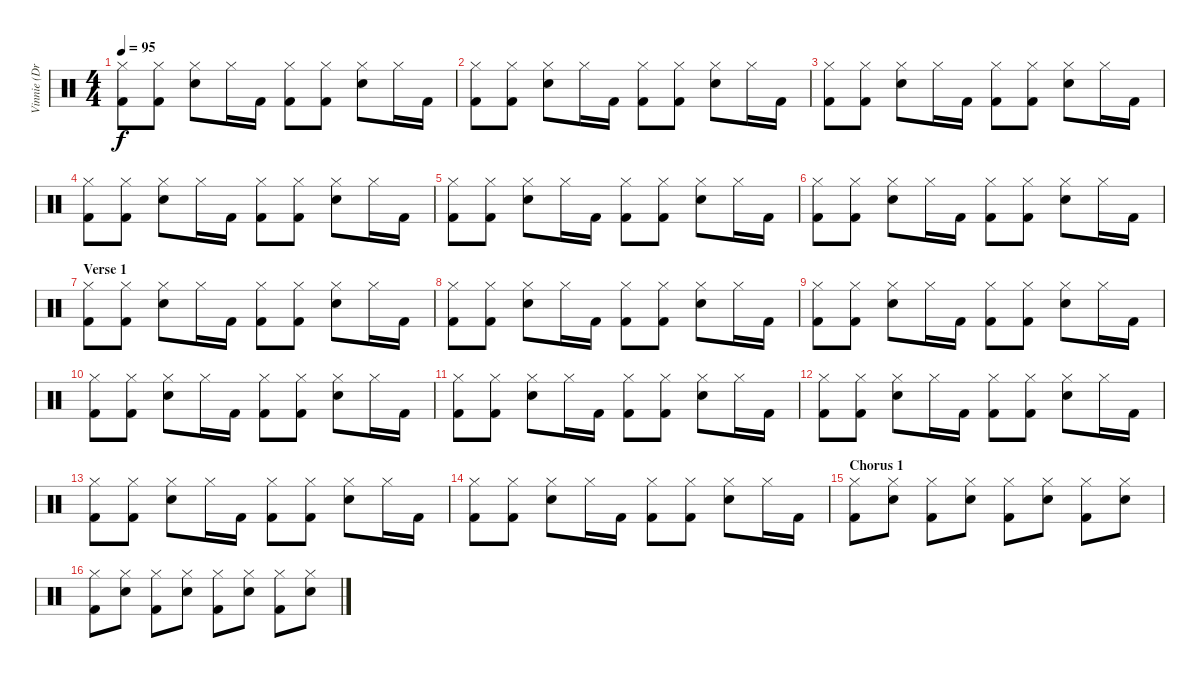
\track ("Vinnie (Drums)" "Vinnie (Dr") {instrument percussion}
\staff {score}
\articulation defaults
\ts (4 4)
\tempo 95
\clef neutral
\ks c
("Kick (hit) 2" "Hi-Hat (closed)").8{dy f} ("Kick (hit) 2" "Hi-Hat (closed)").8 ("Snare (hit) 2" "Hi-Hat (closed)").8 "Hi-Hat (closed)".16 "Kick (hit) 2".16 ("Kick (hit) 2" "Hi-Hat (closed)").8 ("Kick (hit) 2" "Hi-Hat (closed)").8 ("Snare (hit) 2" "Hi-Hat (closed)").8 "Hi-Hat (closed)".16 "Kick (hit) 2".16 |
("Kick (hit) 2" "Hi-Hat (closed)").8 ("Kick (hit) 2" "Hi-Hat (closed)").8 ("Snare (hit) 2" "Hi-Hat (closed)").8 "Hi-Hat (closed)".16 "Kick (hit) 2".16 ("Kick (hit) 2" "Hi-Hat (closed)").8 ("Kick (hit) 2" "Hi-Hat (closed)").8 ("Snare (hit) 2" "Hi-Hat (closed)").8 "Hi-Hat (closed)".16 "Kick (hit) 2".16 |
("Kick (hit) 2" "Hi-Hat (closed)").8 ("Kick (hit) 2" "Hi-Hat (closed)").8 ("Snare (hit) 2" "Hi-Hat (closed)").8 "Hi-Hat (closed)".16 "Kick (hit) 2".16 ("Kick (hit) 2" "Hi-Hat (closed)").8 ("Kick (hit) 2" "Hi-Hat (closed)").8 ("Snare (hit) 2" "Hi-Hat (closed)").8 "Hi-Hat (closed)".16 "Kick (hit) 2".16 |
("Kick (hit) 2" "Hi-Hat (closed)").8 ("Kick (hit) 2" "Hi-Hat (closed)").8 ("Snare (hit) 2" "Hi-Hat (closed)").8 "Hi-Hat (closed)".16 "Kick (hit) 2".16 ("Kick (hit) 2" "Hi-Hat (closed)").8 ("Kick (hit) 2" "Hi-Hat (closed)").8 ("Snare (hit) 2" "Hi-Hat (closed)").8 "Hi-Hat (closed)".16 "Kick (hit) 2".16 |
("Kick (hit) 2" "Hi-Hat (closed)").8 ("Kick (hit) 2" "Hi-Hat (closed)").8 ("Snare (hit) 2" "Hi-Hat (closed)").8 "Hi-Hat (closed)".16 "Kick (hit) 2".16 ("Kick (hit) 2" "Hi-Hat (closed)").8 ("Kick (hit) 2" "Hi-Hat (closed)").8 ("Snare (hit) 2" "Hi-Hat (closed)").8 "Hi-Hat (closed)".16 "Kick (hit) 2".16 |
("Kick (hit) 2" "Hi-Hat (closed)").8 ("Kick (hit) 2" "Hi-Hat (closed)").8 ("Snare (hit) 2" "Hi-Hat (closed)").8 "Hi-Hat (closed)".16 "Kick (hit) 2".16 ("Kick (hit) 2" "Hi-Hat (closed)").8 ("Kick (hit) 2" "Hi-Hat (closed)").8 ("Snare (hit) 2" "Hi-Hat (closed)").8 "Hi-Hat (closed)".16 "Kick (hit) 2".16 |
\section ("" "Verse 1")
("Kick (hit) 2" "Hi-Hat (closed)").8 ("Kick (hit) 2" "Hi-Hat (closed)").8 ("Snare (hit) 2" "Hi-Hat (closed)").8 "Hi-Hat (closed)".16 "Kick (hit) 2".16 ("Kick (hit) 2" "Hi-Hat (closed)").8 ("Kick (hit) 2" "Hi-Hat (closed)").8 ("Snare (hit) 2" "Hi-Hat (closed)").8 "Hi-Hat (closed)".16 "Kick (hit) 2".16 |
("Kick (hit) 2" "Hi-Hat (closed)").8 ("Kick (hit) 2" "Hi-Hat (closed)").8 ("Snare (hit) 2" "Hi-Hat (closed)").8 "Hi-Hat (closed)".16 "Kick (hit) 2".16 ("Kick (hit) 2" "Hi-Hat (closed)").8 ("Kick (hit) 2" "Hi-Hat (closed)").8 ("Snare (hit) 2" "Hi-Hat (closed)").8 "Hi-Hat (closed)".16 "Kick (hit) 2".16 |
("Kick (hit) 2" "Hi-Hat (closed)").8 ("Kick (hit) 2" "Hi-Hat (closed)").8 ("Snare (hit) 2" "Hi-Hat (closed)").8 "Hi-Hat (closed)".16 "Kick (hit) 2".16 ("Kick (hit) 2" "Hi-Hat (closed)").8 ("Kick (hit) 2" "Hi-Hat (closed)").8 ("Snare (hit) 2" "Hi-Hat (closed)").8 "Hi-Hat (closed)".16 "Kick (hit) 2".16 |
("Kick (hit) 2" "Hi-Hat (closed)").8 ("Kick (hit) 2" "Hi-Hat (closed)").8 ("Snare (hit) 2" "Hi-Hat (closed)").8 "Hi-Hat (closed)".16 "Kick (hit) 2".16 ("Kick (hit) 2" "Hi-Hat (closed)").8 ("Kick (hit) 2" "Hi-Hat (closed)").8 ("Snare (hit) 2" "Hi-Hat (closed)").8 "Hi-Hat (closed)".16 "Kick (hit) 2".16 |
("Kick (hit) 2" "Hi-Hat (closed)").8 ("Kick (hit) 2" "Hi-Hat (closed)").8 ("Snare (hit) 2" "Hi-Hat (closed)").8 "Hi-Hat (closed)".16 "Kick (hit) 2".16 ("Kick (hit) 2" "Hi-Hat (closed)").8 ("Kick (hit) 2" "Hi-Hat (closed)").8 ("Snare (hit) 2" "Hi-Hat (closed)").8 "Hi-Hat (closed)".16 "Kick (hit) 2".16 |
("Kick (hit) 2" "Hi-Hat (closed)").8 ("Kick (hit) 2" "Hi-Hat (closed)").8 ("Snare (hit) 2" "Hi-Hat (closed)").8 "Hi-Hat (closed)".16 "Kick (hit) 2".16 ("Kick (hit) 2" "Hi-Hat (closed)").8 ("Kick (hit) 2" "Hi-Hat (closed)").8 ("Snare (hit) 2" "Hi-Hat (closed)").8 "Hi-Hat (closed)".16 "Kick (hit) 2".16 |
("Kick (hit) 2" "Hi-Hat (closed)").8 ("Kick (hit) 2" "Hi-Hat (closed)").8 ("Snare (hit) 2" "Hi-Hat (closed)").8 "Hi-Hat (closed)".16 "Kick (hit) 2".16 ("Kick (hit) 2" "Hi-Hat (closed)").8 ("Kick (hit) 2" "Hi-Hat (closed)").8 ("Snare (hit) 2" "Hi-Hat (closed)").8 "Hi-Hat (closed)".16 "Kick (hit) 2".16 |
("Kick (hit) 2" "Hi-Hat (closed)").8 ("Kick (hit) 2" "Hi-Hat (closed)").8 ("Snare (hit) 2" "Hi-Hat (closed)").8 "Hi-Hat (closed)".16 "Kick (hit) 2".16 ("Kick (hit) 2" "Hi-Hat (closed)").8 ("Kick (hit) 2" "Hi-Hat (closed)").8 ("Snare (hit) 2" "Hi-Hat (closed)").8 "Hi-Hat (closed)".16 "Kick (hit) 2".16 |
\section ("" "Chorus 1")
("Kick (hit) 2" "Hi-Hat (closed)").8 ("Snare (hit) 2" "Hi-Hat (closed)").8 ("Kick (hit) 2" "Hi-Hat (closed)").8 ("Snare (hit) 2" "Hi-Hat (closed)").8 ("Kick (hit) 2" "Hi-Hat (closed)").8 ("Snare (hit) 2" "Hi-Hat (closed)").8 ("Kick (hit) 2" "Hi-Hat (closed)").8 ("Snare (hit) 2" "Hi-Hat (closed)").8 |
("Kick (hit) 2" "Hi-Hat (closed)").8 ("Snare (hit) 2" "Hi-Hat (closed)").8 ("Kick (hit) 2" "Hi-Hat (closed)").8 ("Snare (hit) 2" "Hi-Hat (closed)").8 ("Kick (hit) 2" "Hi-Hat (closed)").8 ("Snare (hit) 2" "Hi-Hat (closed)").8 ("Kick (hit) 2" "Hi-Hat (closed)").8 ("Snare (hit) 2" "Hi-Hat (closed)").8
